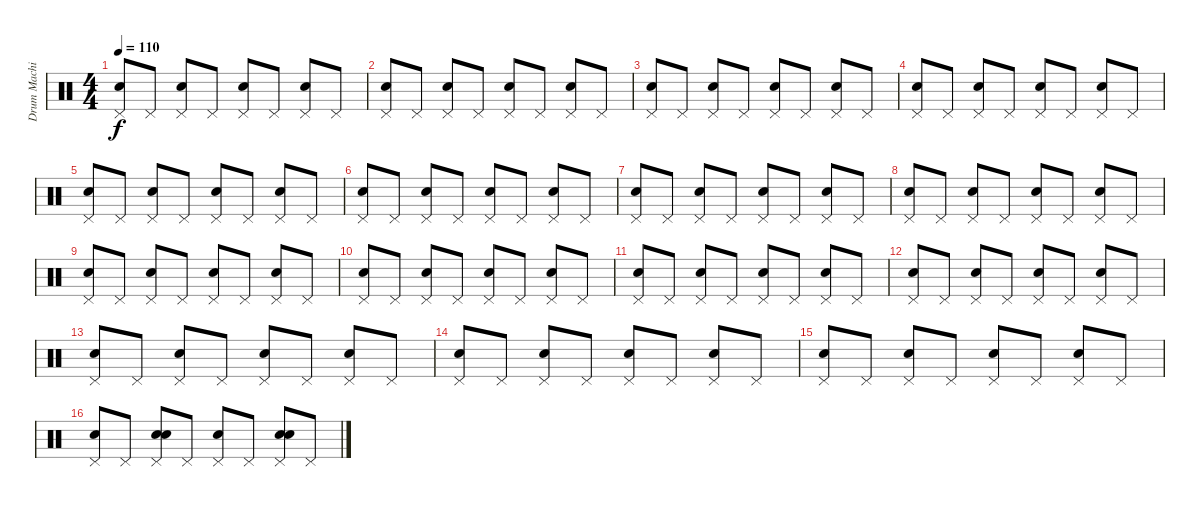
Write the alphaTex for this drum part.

\track ("Drum Machine" "Drum Machi") {instrument percussion}
\staff {score}
\articulation defaults
\ts (4 4)
\tempo 110
\clef neutral
\ks c
("Pedal Hi-Hat (hit)" "Snare (hit) 2").8{dy f} "Pedal Hi-Hat (hit)".8 ("Pedal Hi-Hat (hit)" "Snare (hit) 2").8 "Pedal Hi-Hat (hit)".8 ("Pedal Hi-Hat (hit)" "Snare (hit) 2").8 "Pedal Hi-Hat (hit)".8 ("Pedal Hi-Hat (hit)" "Snare (hit) 2").8 "Pedal Hi-Hat (hit)".8 |
("Pedal Hi-Hat (hit)" "Snare (hit) 2").8 "Pedal Hi-Hat (hit)".8 ("Pedal Hi-Hat (hit)" "Snare (hit) 2").8 "Pedal Hi-Hat (hit)".8 ("Pedal Hi-Hat (hit)" "Snare (hit) 2").8 "Pedal Hi-Hat (hit)".8 ("Pedal Hi-Hat (hit)" "Snare (hit) 2").8 "Pedal Hi-Hat (hit)".8 |
("Pedal Hi-Hat (hit)" "Snare (hit) 2").8 "Pedal Hi-Hat (hit)".8 ("Pedal Hi-Hat (hit)" "Snare (hit) 2").8 "Pedal Hi-Hat (hit)".8 ("Pedal Hi-Hat (hit)" "Snare (hit) 2").8 "Pedal Hi-Hat (hit)".8 ("Pedal Hi-Hat (hit)" "Snare (hit) 2").8 "Pedal Hi-Hat (hit)".8 |
("Pedal Hi-Hat (hit)" "Snare (hit) 2").8 "Pedal Hi-Hat (hit)".8 ("Pedal Hi-Hat (hit)" "Snare (hit) 2").8 "Pedal Hi-Hat (hit)".8 ("Pedal Hi-Hat (hit)" "Snare (hit) 2").8 "Pedal Hi-Hat (hit)".8 ("Pedal Hi-Hat (hit)" "Snare (hit) 2").8 "Pedal Hi-Hat (hit)".8 |
("Pedal Hi-Hat (hit)" "Snare (hit) 2").8 "Pedal Hi-Hat (hit)".8 ("Pedal Hi-Hat (hit)" "Snare (hit) 2").8 "Pedal Hi-Hat (hit)".8 ("Pedal Hi-Hat (hit)" "Snare (hit) 2").8 "Pedal Hi-Hat (hit)".8 ("Pedal Hi-Hat (hit)" "Snare (hit) 2").8 "Pedal Hi-Hat (hit)".8 |
("Pedal Hi-Hat (hit)" "Snare (hit) 2").8 "Pedal Hi-Hat (hit)".8 ("Pedal Hi-Hat (hit)" "Snare (hit) 2").8 "Pedal Hi-Hat (hit)".8 ("Pedal Hi-Hat (hit)" "Snare (hit) 2").8 "Pedal Hi-Hat (hit)".8 ("Pedal Hi-Hat (hit)" "Snare (hit) 2").8 "Pedal Hi-Hat (hit)".8 |
("Pedal Hi-Hat (hit)" "Snare (hit) 2").8 "Pedal Hi-Hat (hit)".8 ("Pedal Hi-Hat (hit)" "Snare (hit) 2").8 "Pedal Hi-Hat (hit)".8 ("Pedal Hi-Hat (hit)" "Snare (hit) 2").8 "Pedal Hi-Hat (hit)".8 ("Pedal Hi-Hat (hit)" "Snare (hit) 2").8 "Pedal Hi-Hat (hit)".8 |
("Pedal Hi-Hat (hit)" "Snare (hit) 2").8 "Pedal Hi-Hat (hit)".8 ("Pedal Hi-Hat (hit)" "Snare (hit) 2").8 "Pedal Hi-Hat (hit)".8 ("Pedal Hi-Hat (hit)" "Snare (hit) 2").8 "Pedal Hi-Hat (hit)".8 ("Pedal Hi-Hat (hit)" "Snare (hit) 2").8 "Pedal Hi-Hat (hit)".8 |
("Pedal Hi-Hat (hit)" "Snare (hit) 2").8 "Pedal Hi-Hat (hit)".8 ("Pedal Hi-Hat (hit)" "Snare (hit) 2").8 "Pedal Hi-Hat (hit)".8 ("Pedal Hi-Hat (hit)" "Snare (hit) 2").8 "Pedal Hi-Hat (hit)".8 ("Pedal Hi-Hat (hit)" "Snare (hit) 2").8 "Pedal Hi-Hat (hit)".8 |
("Pedal Hi-Hat (hit)" "Snare (hit) 2").8 "Pedal Hi-Hat (hit)".8 ("Pedal Hi-Hat (hit)" "Snare (hit) 2").8 "Pedal Hi-Hat (hit)".8 ("Pedal Hi-Hat (hit)" "Snare (hit) 2").8 "Pedal Hi-Hat (hit)".8 ("Pedal Hi-Hat (hit)" "Snare (hit) 2").8 "Pedal Hi-Hat (hit)".8 |
("Pedal Hi-Hat (hit)" "Snare (hit) 2").8 "Pedal Hi-Hat (hit)".8 ("Pedal Hi-Hat (hit)" "Snare (hit) 2").8 "Pedal Hi-Hat (hit)".8 ("Pedal Hi-Hat (hit)" "Snare (hit) 2").8 "Pedal Hi-Hat (hit)".8 ("Pedal Hi-Hat (hit)" "Snare (hit) 2").8 "Pedal Hi-Hat (hit)".8 |
("Pedal Hi-Hat (hit)" "Snare (hit) 2").8 "Pedal Hi-Hat (hit)".8 ("Pedal Hi-Hat (hit)" "Snare (hit) 2").8 "Pedal Hi-Hat (hit)".8 ("Pedal Hi-Hat (hit)" "Snare (hit) 2").8 "Pedal Hi-Hat (hit)".8 ("Pedal Hi-Hat (hit)" "Snare (hit) 2").8 "Pedal Hi-Hat (hit)".8 |
("Pedal Hi-Hat (hit)" "Snare (hit) 2").8 "Pedal Hi-Hat (hit)".8 ("Pedal Hi-Hat (hit)" "Snare (hit) 2").8 "Pedal Hi-Hat (hit)".8 ("Pedal Hi-Hat (hit)" "Snare (hit) 2").8 "Pedal Hi-Hat (hit)".8 ("Pedal Hi-Hat (hit)" "Snare (hit) 2").8 "Pedal Hi-Hat (hit)".8 |
("Pedal Hi-Hat (hit)" "Snare (hit) 2").8 "Pedal Hi-Hat (hit)".8 ("Pedal Hi-Hat (hit)" "Snare (hit) 2").8 "Pedal Hi-Hat (hit)".8 ("Pedal Hi-Hat (hit)" "Snare (hit) 2").8 "Pedal Hi-Hat (hit)".8 ("Pedal Hi-Hat (hit)" "Snare (hit) 2").8 "Pedal Hi-Hat (hit)".8 |
("Pedal Hi-Hat (hit)" "Snare (hit) 2").8 "Pedal Hi-Hat (hit)".8 ("Pedal Hi-Hat (hit)" "Snare (hit) 2").8 "Pedal Hi-Hat (hit)".8 ("Pedal Hi-Hat (hit)" "Snare (hit) 2").8 "Pedal Hi-Hat (hit)".8 ("Pedal Hi-Hat (hit)" "Snare (hit) 2").8 "Pedal Hi-Hat (hit)".8 |
("Pedal Hi-Hat (hit)" "Snare (hit) 2").8 "Pedal Hi-Hat (hit)".8 ("Pedal Hi-Hat (hit)" "Snare (hit) 2" "Hand Clap (hit)").8 "Pedal Hi-Hat (hit)".8 ("Pedal Hi-Hat (hit)" "Snare (hit) 2").8 "Pedal Hi-Hat (hit)".8 ("Pedal Hi-Hat (hit)" "Snare (hit) 2" "Hand Clap (hit)").8 "Pedal Hi-Hat (hit)".8
